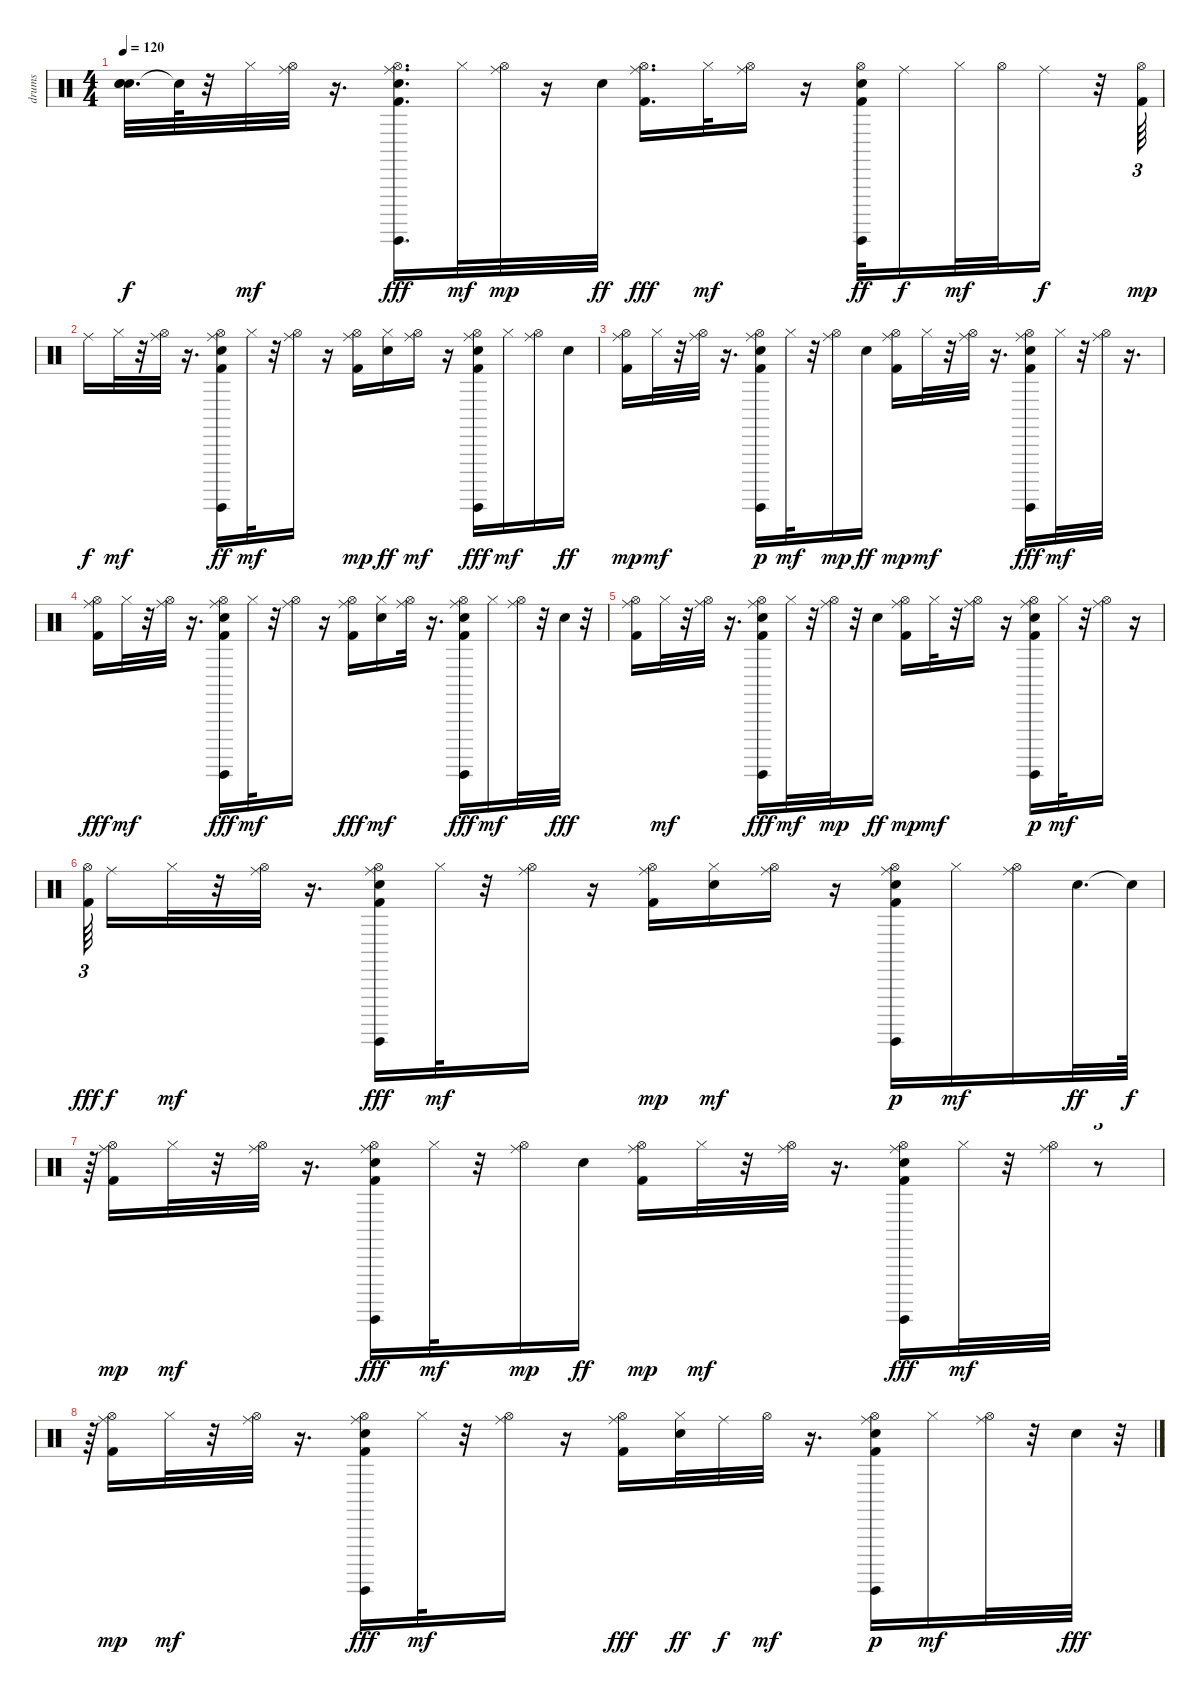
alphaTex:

\track ("drums                               " "drums     ") {instrument percussion}
\staff {score}
\articulation defaults
\ts (4 4)
\tempo 120
\clef neutral
\ks c
("Snare (hit)"{t} "Snare (hit)"{t} "Snare (hit)"{t}).32{d dy f} "Snare (hit)"{t}.64 r.32 "Hi-Hat (closed)".32{dy mf} ("Ride (middle)" "Hi-Hat (open)").32 r.16{d} ("Guiro (hit)" "Hi-Hat (open)" "Electric Snare (hit)" "Kick (hit) 2" "Ride (middle)").16{d dy fff} "Hi-Hat (closed)".32{dy mf} ("Ride (middle)" "Hi-Hat (open)").32{dy mp} r.16 "Electric Snare (hit)".32{dy ff} ("Hi-Hat (open)" "Kick (hit) 2" "Ride (middle)").16{d dy fff} "Hi-Hat (closed)".32{dy mf} ("Ride (middle)" "Hi-Hat (open)").16 r.16 ("Hi-Hat (open)" "Kick (hit) 2" "Electric Snare (hit)" "Guiro (hit)").32{dy ff} "Ride (middle)".16{dy f} "Hi-Hat (closed)".32{dy mf} "Hi-Hat (open)".32 "Ride (middle)".16{dy f} r.32 ("Kick (hit) 2" "Hi-Hat (open)").64{tu (3 2) dy mp} |
"Ride (middle)".16{dy f} "Hi-Hat (closed)".32{dy mf} r.32 ("Hi-Hat (open)" "Ride (middle)").32 r.16{d} ("Hi-Hat (open)" "Kick (hit) 2" "Electric Snare (hit)" "Guiro (hit)" "Ride (middle)").16{dy ff} "Hi-Hat (closed)".32{dy mf} r.32 ("Hi-Hat (open)" "Ride (middle)").16 r.16 ("Ride (middle)" "Kick (hit) 2" "Hi-Hat (open)").16{dy mp} ("Hi-Hat (closed)" "Electric Snare (hit)").16{dy ff} ("Hi-Hat (open)" "Ride (middle)").16{dy mf} r.16 ("Hi-Hat (open)" "Electric Snare (hit)" "Guiro (hit)" "Kick (hit) 2" "Ride (middle)").16{dy fff} "Hi-Hat (closed)".16{dy mf} ("Hi-Hat (open)" "Ride (middle)").16 "Electric Snare (hit)".16{dy ff} |
("Kick (hit) 2" "Hi-Hat (open)" "Ride (middle)").16{dy mp} "Hi-Hat (closed)".32{dy mf} r.32 ("Hi-Hat (open)" "Ride (middle)").32 r.16{d} ("Electric Snare (hit)" "Kick (hit) 2" "Guiro (hit)" "Hi-Hat (open)" "Ride (middle)").16{dy p} "Hi-Hat (closed)".32{dy mf} r.32 ("Hi-Hat (open)" "Ride (middle)").16{dy mp} "Electric Snare (hit)".16{dy ff} ("Ride (middle)" "Kick (hit) 2" "Hi-Hat (open)").16{dy mp} "Hi-Hat (closed)".32{dy mf} r.32 ("Hi-Hat (open)" "Ride (middle)").32 r.16{d} ("Guiro (hit)" "Hi-Hat (open)" "Electric Snare (hit)" "Kick (hit) 2" "Ride (middle)").16{dy fff} "Hi-Hat (closed)".32{dy mf} r.32 ("Hi-Hat (open)" "Ride (middle)").32 r.16{d} |
("Hi-Hat (open)" "Kick (hit) 2" "Ride (middle)").16{dy fff} "Hi-Hat (closed)".32{dy mf} r.32 ("Ride (middle)" "Hi-Hat (open)").32 r.16{d} ("Hi-Hat (open)" "Kick (hit) 2" "Guiro (hit)" "Electric Snare (hit)" "Ride (middle)").16{dy fff} "Hi-Hat (closed)".32{dy mf} r.32 ("Ride (middle)" "Hi-Hat (open)").16 r.16 ("Ride (middle)" "Hi-Hat (open)" "Kick (hit) 2").16{dy fff} ("Electric Snare (hit)" "Hi-Hat (closed)").16{dy mf} ("Ride (middle)" "Hi-Hat (open)").32 r.16{d} ("Ride (middle)" "Hi-Hat (open)" "Guiro (hit)" "Electric Snare (hit)" "Kick (hit) 2").16{dy fff} "Hi-Hat (closed)".16{dy mf} ("Ride (middle)" "Hi-Hat (open)").32 r.32 "Electric Snare (hit)".32{dy fff} r.32 |
("Hi-Hat (open)" "Ride (middle)" "Kick (hit) 2").16 "Hi-Hat (closed)".32{dy mf} r.32 ("Ride (middle)" "Hi-Hat (open)").32 r.16{d} ("Hi-Hat (open)" "Electric Snare (hit)" "Kick (hit) 2" "Guiro (hit)" "Ride (middle)").16{dy fff} "Hi-Hat (closed)".32{dy mf} r.32 ("Hi-Hat (open)" "Ride (middle)").32{dy mp} r.32 "Electric Snare (hit)".16{dy ff} ("Kick (hit) 2" "Hi-Hat (open)" "Ride (middle)").16{dy mp} "Hi-Hat (closed)".32{dy mf} r.32 ("Ride (middle)" "Hi-Hat (open)").16 r.16 ("Guiro (hit)" "Electric Snare (hit)" "Kick (hit) 2" "Hi-Hat (open)" "Ride (middle)").16{dy p} "Hi-Hat (closed)".32{dy mf} r.32 ("Hi-Hat (open)" "Ride (middle)").16 r.16 |
("Hi-Hat (open)" "Kick (hit) 2").64{tu (3 2) dy fff beam splitsecondary} "Ride (middle)".16{dy f} "Hi-Hat (closed)".32{dy mf} r.32 ("Hi-Hat (open)" "Ride (middle)").32 r.16{d} ("Electric Snare (hit)" "Hi-Hat (open)" "Kick (hit) 2" "Guiro (hit)" "Ride (middle)").16{dy fff} "Hi-Hat (closed)".32{dy mf} r.32 ("Hi-Hat (open)" "Ride (middle)").16 r.16 ("Ride (middle)" "Kick (hit) 2" "Hi-Hat (open)").16{dy mp} ("Electric Snare (hit)" "Hi-Hat (closed)").16{dy mf} ("Hi-Hat (open)" "Ride (middle)").16 r.16 ("Guiro (hit)" "Kick (hit) 2" "Electric Snare (hit)" "Hi-Hat (open)" "Ride (middle)").16{dy p} "Hi-Hat (closed)".16{dy mf} ("Hi-Hat (open)" "Ride (middle)").16 "Electric Snare (hit)".32{d dy ff} "Snare (hit)"{t}.64{dy f} |
r.64{tu (3 2)} ("Kick (hit) 2" "Hi-Hat (open)" "Ride (middle)").16{dy mp} "Hi-Hat (closed)".32{dy mf} r.32 ("Hi-Hat (open)" "Ride (middle)").32 r.16{d} ("Guiro (hit)" "Electric Snare (hit)" "Hi-Hat (open)" "Kick (hit) 2" "Ride (middle)").16{dy fff} "Hi-Hat (closed)".32{dy mf} r.32 ("Hi-Hat (open)" "Ride (middle)").16{dy mp} "Electric Snare (hit)".16{dy ff} ("Ride (middle)" "Kick (hit) 2" "Hi-Hat (open)").16{dy mp} "Hi-Hat (closed)".32{dy mf} r.32 ("Hi-Hat (open)" "Ride (middle)").32 r.16{d} ("Electric Snare (hit)" "Guiro (hit)" "Hi-Hat (open)" "Kick (hit) 2" "Ride (middle)").16{dy fff} "Hi-Hat (closed)".32{dy mf} r.32 ("Hi-Hat (open)" "Ride (middle)").32 r.8{tu (3 2)} |
r.64{tu (3 2)} ("Kick (hit) 2" "Hi-Hat (open)" "Ride (middle)").16{dy mp} "Hi-Hat (closed)".32{dy mf} r.32 ("Ride (middle)" "Hi-Hat (open)").32 r.16{d} ("Electric Snare (hit)" "Hi-Hat (open)" "Kick (hit) 2" "Guiro (hit)" "Ride (middle)").16{dy fff} "Hi-Hat (closed)".32{dy mf} r.32 ("Ride (middle)" "Hi-Hat (open)").16 r.16 ("Ride (middle)" "Hi-Hat (open)" "Kick (hit) 2").16{dy fff} ("Hi-Hat (closed)" "Electric Snare (hit)").32{dy ff} "Ride (middle)".32{dy f} "Hi-Hat (open)".32{dy mf} r.16{d} ("Ride (middle)" "Guiro (hit)" "Kick (hit) 2" "Electric Snare (hit)" "Hi-Hat (open)").16{dy p} "Hi-Hat (closed)".16{dy mf} ("Ride (middle)" "Hi-Hat (open)").32 r.32 "Electric Snare (hit)".32{dy fff} r.32{tu (3 2)}
